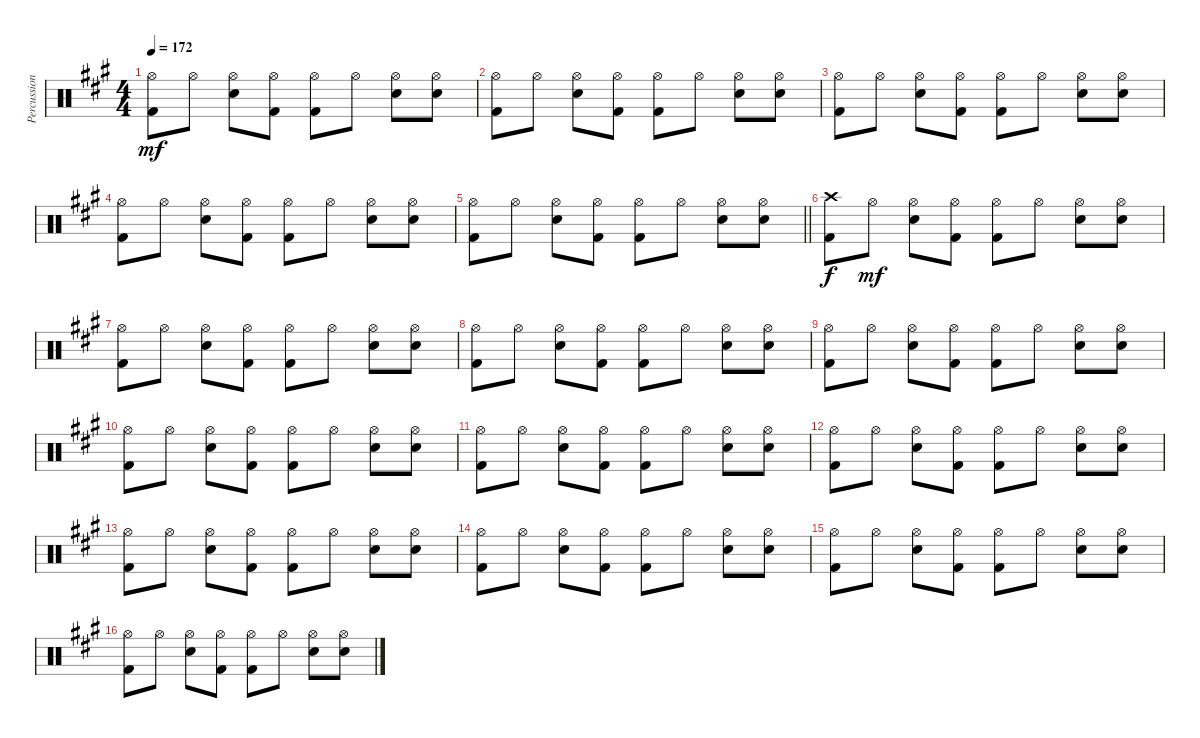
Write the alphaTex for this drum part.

\track ("Percussion" "Percussion") {instrument percussion}
\staff {score}
\articulation defaults
\ts (4 4)
\tempo 172
\clef neutral
\ks a
("Hi-Hat (open)" "Kick (hit) 2").8{dy mf} "Hi-Hat (open)".8 ("Hi-Hat (open)" "Snare (hit) 2").8 ("Hi-Hat (open)" "Kick (hit) 2").8 ("Hi-Hat (open)" "Kick (hit) 2").8 "Hi-Hat (open)".8 ("Hi-Hat (open)" "Snare (hit) 2").8 ("Hi-Hat (open)" "Snare (hit) 2").8 |
("Hi-Hat (open)" "Kick (hit) 2").8 "Hi-Hat (open)".8 ("Hi-Hat (open)" "Snare (hit) 2").8 ("Hi-Hat (open)" "Kick (hit) 2").8 ("Hi-Hat (open)" "Kick (hit) 2").8 "Hi-Hat (open)".8 ("Hi-Hat (open)" "Snare (hit) 2").8 ("Hi-Hat (open)" "Snare (hit) 2").8 |
("Hi-Hat (open)" "Kick (hit) 2").8 "Hi-Hat (open)".8 ("Hi-Hat (open)" "Snare (hit) 2").8 ("Hi-Hat (open)" "Kick (hit) 2").8 ("Hi-Hat (open)" "Kick (hit) 2").8 "Hi-Hat (open)".8 ("Hi-Hat (open)" "Snare (hit) 2").8 ("Hi-Hat (open)" "Snare (hit) 2").8 |
("Hi-Hat (open)" "Kick (hit) 2").8 "Hi-Hat (open)".8 ("Hi-Hat (open)" "Snare (hit) 2").8 ("Hi-Hat (open)" "Kick (hit) 2").8 ("Hi-Hat (open)" "Kick (hit) 2").8 "Hi-Hat (open)".8 ("Hi-Hat (open)" "Snare (hit) 2").8 ("Hi-Hat (open)" "Snare (hit) 2").8 |
\barLineRight lightlight
("Hi-Hat (open)" "Kick (hit) 2").8 "Hi-Hat (open)".8 ("Hi-Hat (open)" "Snare (hit) 2").8 ("Hi-Hat (open)" "Kick (hit) 2").8 ("Hi-Hat (open)" "Kick (hit) 2").8 "Hi-Hat (open)".8 ("Hi-Hat (open)" "Snare (hit) 2").8 ("Hi-Hat (open)" "Snare (hit) 2").8 |
("Crash high (hit)" "Kick (hit) 2").8{dy f} "Hi-Hat (open)".8{dy mf} ("Hi-Hat (open)" "Snare (hit) 2").8 ("Hi-Hat (open)" "Kick (hit) 2").8 ("Hi-Hat (open)" "Kick (hit) 2").8 "Hi-Hat (open)".8 ("Hi-Hat (open)" "Snare (hit) 2").8 ("Hi-Hat (open)" "Snare (hit) 2").8 |
("Hi-Hat (open)" "Kick (hit) 2").8 "Hi-Hat (open)".8 ("Hi-Hat (open)" "Snare (hit) 2").8 ("Hi-Hat (open)" "Kick (hit) 2").8 ("Hi-Hat (open)" "Kick (hit) 2").8 "Hi-Hat (open)".8 ("Hi-Hat (open)" "Snare (hit) 2").8 ("Hi-Hat (open)" "Snare (hit) 2").8 |
("Hi-Hat (open)" "Kick (hit) 2").8 "Hi-Hat (open)".8 ("Hi-Hat (open)" "Snare (hit) 2").8 ("Hi-Hat (open)" "Kick (hit) 2").8 ("Hi-Hat (open)" "Kick (hit) 2").8 "Hi-Hat (open)".8 ("Hi-Hat (open)" "Snare (hit) 2").8 ("Hi-Hat (open)" "Snare (hit) 2").8 |
("Hi-Hat (open)" "Kick (hit) 2").8 "Hi-Hat (open)".8 ("Hi-Hat (open)" "Snare (hit) 2").8 ("Hi-Hat (open)" "Kick (hit) 2").8 ("Hi-Hat (open)" "Kick (hit) 2").8 "Hi-Hat (open)".8 ("Hi-Hat (open)" "Snare (hit) 2").8 ("Hi-Hat (open)" "Snare (hit) 2").8 |
("Hi-Hat (open)" "Kick (hit) 2").8 "Hi-Hat (open)".8 ("Hi-Hat (open)" "Snare (hit) 2").8 ("Hi-Hat (open)" "Kick (hit) 2").8 ("Hi-Hat (open)" "Kick (hit) 2").8 "Hi-Hat (open)".8 ("Hi-Hat (open)" "Snare (hit) 2").8 ("Hi-Hat (open)" "Snare (hit) 2").8 |
("Hi-Hat (open)" "Kick (hit) 2").8 "Hi-Hat (open)".8 ("Hi-Hat (open)" "Snare (hit) 2").8 ("Hi-Hat (open)" "Kick (hit) 2").8 ("Hi-Hat (open)" "Kick (hit) 2").8 "Hi-Hat (open)".8 ("Hi-Hat (open)" "Snare (hit) 2").8 ("Hi-Hat (open)" "Snare (hit) 2").8 |
("Hi-Hat (open)" "Kick (hit) 2").8 "Hi-Hat (open)".8 ("Hi-Hat (open)" "Snare (hit) 2").8 ("Hi-Hat (open)" "Kick (hit) 2").8 ("Hi-Hat (open)" "Kick (hit) 2").8 "Hi-Hat (open)".8 ("Hi-Hat (open)" "Snare (hit) 2").8 ("Hi-Hat (open)" "Snare (hit) 2").8 |
("Hi-Hat (open)" "Kick (hit) 2").8 "Hi-Hat (open)".8 ("Hi-Hat (open)" "Snare (hit) 2").8 ("Hi-Hat (open)" "Kick (hit) 2").8 ("Hi-Hat (open)" "Kick (hit) 2").8 "Hi-Hat (open)".8 ("Hi-Hat (open)" "Snare (hit) 2").8 ("Hi-Hat (open)" "Snare (hit) 2").8 |
("Hi-Hat (open)" "Kick (hit) 2").8 "Hi-Hat (open)".8 ("Hi-Hat (open)" "Snare (hit) 2").8 ("Hi-Hat (open)" "Kick (hit) 2").8 ("Hi-Hat (open)" "Kick (hit) 2").8 "Hi-Hat (open)".8 ("Hi-Hat (open)" "Snare (hit) 2").8 ("Hi-Hat (open)" "Snare (hit) 2").8 |
("Hi-Hat (open)" "Kick (hit) 2").8 "Hi-Hat (open)".8 ("Hi-Hat (open)" "Snare (hit) 2").8 ("Hi-Hat (open)" "Kick (hit) 2").8 ("Hi-Hat (open)" "Kick (hit) 2").8 "Hi-Hat (open)".8 ("Hi-Hat (open)" "Snare (hit) 2").8 ("Hi-Hat (open)" "Snare (hit) 2").8 |
("Hi-Hat (open)" "Kick (hit) 2").8 "Hi-Hat (open)".8 ("Hi-Hat (open)" "Snare (hit) 2").8 ("Hi-Hat (open)" "Kick (hit) 2").8 ("Hi-Hat (open)" "Kick (hit) 2").8 "Hi-Hat (open)".8 ("Hi-Hat (open)" "Snare (hit) 2").8 ("Hi-Hat (open)" "Snare (hit) 2").8
